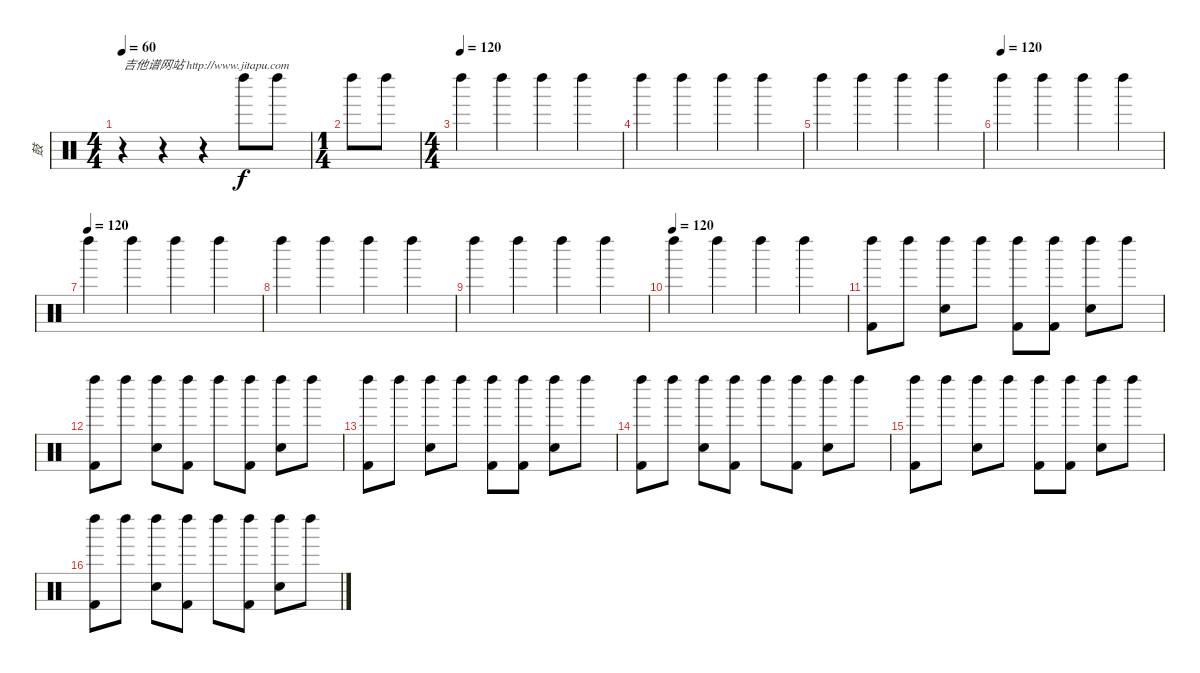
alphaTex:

\track ("鼓" "鼓") {instrument percussion}
\staff {score}
\articulation defaults
\ts (4 4)
\tempo 60
\clef neutral
\ks c
r.4{txt "吉他谱网站 http://www.jitapu.com" dy f} r.4 r.4 "Left Maraca (hit)".8 "Left Maraca (hit)".8 |
\ts (1 4)
"Left Maraca (hit)".8 "Left Maraca (hit)".8 |
\ts (4 4)
\tempo (120)
"Left Maraca (hit)".4 "Left Maraca (hit)".4 "Left Maraca (hit)".4 "Left Maraca (hit)".4 |
"Left Maraca (hit)".4 "Left Maraca (hit)".4 "Left Maraca (hit)".4 "Left Maraca (hit)".4 |
"Left Maraca (hit)".4 "Left Maraca (hit)".4 "Left Maraca (hit)".4 "Left Maraca (hit)".4 |
\tempo (120)
"Left Maraca (hit)".4 "Left Maraca (hit)".4 "Left Maraca (hit)".4 "Left Maraca (hit)".4 |
\tempo (120)
"Left Maraca (hit)".4 "Left Maraca (hit)".4 "Left Maraca (hit)".4 "Left Maraca (hit)".4 |
"Left Maraca (hit)".4 "Left Maraca (hit)".4 "Left Maraca (hit)".4 "Left Maraca (hit)".4 |
"Left Maraca (hit)".4 "Left Maraca (hit)".4 "Left Maraca (hit)".4 "Left Maraca (hit)".4 |
\tempo (120)
"Left Maraca (hit)".4 "Left Maraca (hit)".4 "Left Maraca (hit)".4 "Left Maraca (hit)".4 |
("Left Maraca (hit)" "Kick (hit) 2").8 "Left Maraca (hit)".8 ("Left Maraca (hit)" "Snare (hit) 2").8 "Left Maraca (hit)".8 ("Left Maraca (hit)" "Kick (hit) 2").8 ("Left Maraca (hit)" "Kick (hit) 2").8 ("Left Maraca (hit)" "Snare (hit) 2").8 "Left Maraca (hit)".8 |
("Left Maraca (hit)" "Kick (hit) 2").8 "Left Maraca (hit)".8 ("Left Maraca (hit)" "Snare (hit) 2").8 ("Left Maraca (hit)" "Kick (hit) 2").8 "Left Maraca (hit)".8 ("Left Maraca (hit)" "Kick (hit) 2").8 ("Left Maraca (hit)" "Snare (hit) 2").8 "Left Maraca (hit)".8 |
("Left Maraca (hit)" "Kick (hit) 2").8 "Left Maraca (hit)".8 ("Left Maraca (hit)" "Snare (hit) 2").8 "Left Maraca (hit)".8 ("Left Maraca (hit)" "Kick (hit) 2").8 ("Left Maraca (hit)" "Kick (hit) 2").8 ("Left Maraca (hit)" "Snare (hit) 2").8 "Left Maraca (hit)".8 |
("Left Maraca (hit)" "Kick (hit) 2").8 "Left Maraca (hit)".8 ("Left Maraca (hit)" "Snare (hit) 2").8 ("Left Maraca (hit)" "Kick (hit) 2").8 "Left Maraca (hit)".8 ("Left Maraca (hit)" "Kick (hit) 2").8 ("Left Maraca (hit)" "Snare (hit) 2").8 "Left Maraca (hit)".8 |
("Left Maraca (hit)" "Kick (hit) 2").8 "Left Maraca (hit)".8 ("Left Maraca (hit)" "Snare (hit) 2").8 "Left Maraca (hit)".8 ("Left Maraca (hit)" "Kick (hit) 2").8 ("Left Maraca (hit)" "Kick (hit) 2").8 ("Left Maraca (hit)" "Snare (hit) 2").8 "Left Maraca (hit)".8 |
("Left Maraca (hit)" "Kick (hit) 2").8 "Left Maraca (hit)".8 ("Left Maraca (hit)" "Snare (hit) 2").8 ("Left Maraca (hit)" "Kick (hit) 2").8 "Left Maraca (hit)".8 ("Left Maraca (hit)" "Kick (hit) 2").8 ("Left Maraca (hit)" "Snare (hit) 2").8 "Left Maraca (hit)".8
